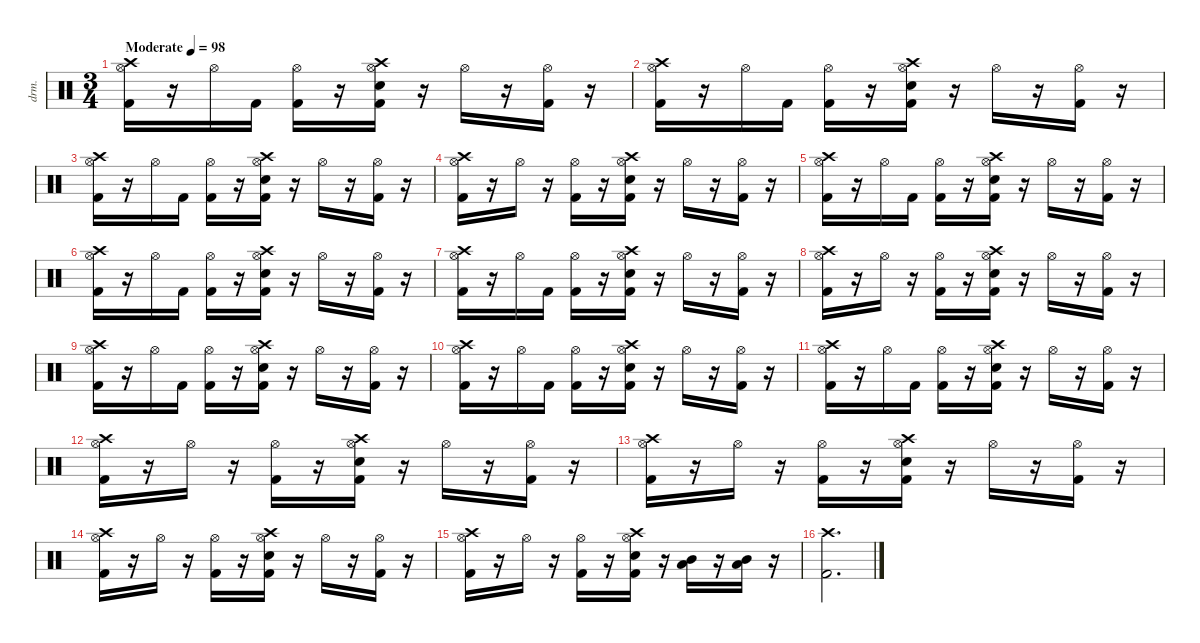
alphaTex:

\defaultSystemsLayout 4
\hideDynamics
\bracketExtendMode nobrackets
\otherSystemsTrackNameOrientation horizontal
\track ("Ударные" "drm.") {instrument percussion}
\staff {score}
\articulation defaults
\ts (3 4)
\beaming (8 2 2 2)
\tempo (98 "Moderate")
\clef neutral
\ks c
("Crash high (hit)" "Kick (hit) 2" "Hi-Hat (open)").16{dy fff beam Down} r.16{beam Down} "Hi-Hat (open)".16{dy f beam Down} "Kick (hit) 2".16{dy mf beam Down} ("Kick (hit) 2" "Hi-Hat (open)").16{dy f beam Down} r.16{beam Down} ("Crash high (hit)" "Snare (hit) 2" "Kick (hit) 2" "Hi-Hat (open)").16{beam Down} r.16{beam Down} "Hi-Hat (open)".16{beam Down} r.16{beam Down} ("Kick (hit) 2" "Hi-Hat (open)").16{beam Down} r.16{beam Down} |
("Crash high (hit)" "Kick (hit) 2" "Hi-Hat (open)").16{dy fff beam Down} r.16{beam Down} "Hi-Hat (open)".16{dy f beam Down} "Kick (hit) 2".16{beam Down} ("Kick (hit) 2" "Hi-Hat (open)").16{beam Down} r.16{beam Down} ("Crash high (hit)" "Snare (hit) 2" "Kick (hit) 2" "Hi-Hat (open)").16{beam Down} r.16{beam Down} "Hi-Hat (open)".16{beam Down} r.16{beam Down} ("Kick (hit) 2" "Hi-Hat (open)").16{beam Down} r.16{beam Down} |
("Crash high (hit)" "Kick (hit) 2" "Hi-Hat (open)").16{dy fff beam Down} r.16{beam Down} "Hi-Hat (open)".16{dy f beam Down} "Kick (hit) 2".16{beam Down} ("Kick (hit) 2" "Hi-Hat (open)").16{beam Down} r.16{beam Down} ("Crash high (hit)" "Snare (hit) 2" "Kick (hit) 2" "Hi-Hat (open)").16{beam Down} r.16{beam Down} "Hi-Hat (open)".16{beam Down} r.16{beam Down} ("Kick (hit) 2" "Hi-Hat (open)").16{beam Down} r.16{beam Down} |
("Crash high (hit)" "Kick (hit) 2" "Hi-Hat (open)").16{dy fff beam Down} r.16{beam Down} "Hi-Hat (open)".16{dy f beam Down} r.16{beam Down} ("Kick (hit) 2" "Hi-Hat (open)").16{beam Down} r.16{beam Down} ("Crash high (hit)" "Snare (hit) 2" "Kick (hit) 2" "Hi-Hat (open)").16{beam Down} r.16{beam Down} "Hi-Hat (open)".16{beam Down} r.16{beam Down} ("Kick (hit) 2" "Hi-Hat (open)").16{beam Down} r.16{beam Down} |
("Crash high (hit)" "Kick (hit) 2" "Hi-Hat (open)").16{dy fff beam Down} r.16{beam Down} "Hi-Hat (open)".16{dy f beam Down} "Kick (hit) 2".16{dy mf beam Down} ("Kick (hit) 2" "Hi-Hat (open)").16{dy f beam Down} r.16{beam Down} ("Crash high (hit)" "Snare (hit) 2" "Kick (hit) 2" "Hi-Hat (open)").16{beam Down} r.16{beam Down} "Hi-Hat (open)".16{beam Down} r.16{beam Down} ("Kick (hit) 2" "Hi-Hat (open)").16{beam Down} r.16{beam Down} |
("Crash high (hit)" "Kick (hit) 2" "Hi-Hat (open)").16{dy fff beam Down} r.16{beam Down} "Hi-Hat (open)".16{dy f beam Down} "Kick (hit) 2".16{beam Down} ("Kick (hit) 2" "Hi-Hat (open)").16{beam Down} r.16{beam Down} ("Crash high (hit)" "Snare (hit) 2" "Kick (hit) 2" "Hi-Hat (open)").16{beam Down} r.16{beam Down} "Hi-Hat (open)".16{beam Down} r.16{beam Down} ("Kick (hit) 2" "Hi-Hat (open)").16{beam Down} r.16{beam Down} |
("Crash high (hit)" "Kick (hit) 2" "Hi-Hat (open)").16{dy fff beam Down} r.16{beam Down} "Hi-Hat (open)".16{dy f beam Down} "Kick (hit) 2".16{beam Down} ("Kick (hit) 2" "Hi-Hat (open)").16{beam Down} r.16{beam Down} ("Crash high (hit)" "Snare (hit) 2" "Kick (hit) 2" "Hi-Hat (open)").16{beam Down} r.16{beam Down} "Hi-Hat (open)".16{beam Down} r.16{beam Down} ("Kick (hit) 2" "Hi-Hat (open)").16{beam Down} r.16{beam Down} |
("Crash high (hit)" "Kick (hit) 2" "Hi-Hat (open)").16{dy fff beam Down} r.16{beam Down} "Hi-Hat (open)".16{dy f beam Down} r.16{beam Down} ("Kick (hit) 2" "Hi-Hat (open)").16{beam Down} r.16{beam Down} ("Crash high (hit)" "Snare (hit) 2" "Kick (hit) 2" "Hi-Hat (open)").16{beam Down} r.16{beam Down} "Hi-Hat (open)".16{beam Down} r.16{beam Down} ("Kick (hit) 2" "Hi-Hat (open)").16{beam Down} r.16{beam Down} |
("Crash high (hit)" "Kick (hit) 2" "Hi-Hat (open)").16{dy fff beam Down} r.16{beam Down} "Hi-Hat (open)".16{dy f beam Down} "Kick (hit) 2".16{dy mf beam Down} ("Kick (hit) 2" "Hi-Hat (open)").16{dy f beam Down} r.16{beam Down} ("Crash high (hit)" "Snare (hit) 2" "Kick (hit) 2" "Hi-Hat (open)").16{beam Down} r.16{beam Down} "Hi-Hat (open)".16{beam Down} r.16{beam Down} ("Kick (hit) 2" "Hi-Hat (open)").16{beam Down} r.16{beam Down} |
("Crash high (hit)" "Kick (hit) 2" "Hi-Hat (open)").16{dy fff beam Down} r.16{beam Down} "Hi-Hat (open)".16{dy f beam Down} "Kick (hit) 2".16{beam Down} ("Kick (hit) 2" "Hi-Hat (open)").16{beam Down} r.16{beam Down} ("Crash high (hit)" "Snare (hit) 2" "Kick (hit) 2" "Hi-Hat (open)").16{beam Down} r.16{beam Down} "Hi-Hat (open)".16{beam Down} r.16{beam Down} ("Kick (hit) 2" "Hi-Hat (open)").16{beam Down} r.16{beam Down} |
("Crash high (hit)" "Kick (hit) 2" "Hi-Hat (open)").16{dy fff beam Down} r.16{beam Down} "Hi-Hat (open)".16{dy f beam Down} "Kick (hit) 2".16{beam Down} ("Kick (hit) 2" "Hi-Hat (open)").16{beam Down} r.16{beam Down} ("Crash high (hit)" "Snare (hit) 2" "Kick (hit) 2" "Hi-Hat (open)").16{beam Down} r.16{beam Down} "Hi-Hat (open)".16{beam Down} r.16{beam Down} ("Kick (hit) 2" "Hi-Hat (open)").16{beam Down} r.16{beam Down} |
("Crash high (hit)" "Kick (hit) 2" "Hi-Hat (open)").16{dy fff beam Down} r.16{beam Down} "Hi-Hat (open)".16{dy f beam Down} r.16{beam Down} ("Kick (hit) 2" "Hi-Hat (open)").16{beam Down} r.16{beam Down} ("Crash high (hit)" "Snare (hit) 2" "Kick (hit) 2" "Hi-Hat (open)").16{beam Down} r.16{beam Down} "Hi-Hat (open)".16{beam Down} r.16{beam Down} ("Kick (hit) 2" "Hi-Hat (open)").16{beam Down} r.16{beam Down} |
("Crash high (hit)" "Kick (hit) 2" "Hi-Hat (open)").16{dy fff beam Down} r.16{beam Down} "Hi-Hat (open)".16{dy f beam Down} r.16{beam Down} ("Kick (hit) 2" "Hi-Hat (open)").16{beam Down} r.16{beam Down} ("Crash high (hit)" "Snare (hit) 2" "Kick (hit) 2" "Hi-Hat (open)").16{beam Down} r.16{beam Down} "Hi-Hat (open)".16{beam Down} r.16{beam Down} ("Kick (hit) 2" "Hi-Hat (open)").16{beam Down} r.16{beam Down} |
("Crash high (hit)" "Kick (hit) 2" "Hi-Hat (open)").16{dy fff beam Down} r.16{beam Down} "Hi-Hat (open)".16{dy f beam Down} r.16{beam Down} ("Kick (hit) 2" "Hi-Hat (open)").16{beam Down} r.16{beam Down} ("Crash high (hit)" "Snare (hit) 2" "Kick (hit) 2" "Hi-Hat (open)").16{beam Down} r.16{beam Down} "Hi-Hat (open)".16{beam Down} r.16{beam Down} ("Kick (hit) 2" "Hi-Hat (open)").16{beam Down} r.16{beam Down} |
("Crash high (hit)" "Kick (hit) 2" "Hi-Hat (open)").16{dy fff beam Down} r.16{beam Down} "Hi-Hat (open)".16{dy f beam Down} r.16{beam Down} ("Kick (hit) 2" "Hi-Hat (open)").16{beam Down} r.16{beam Down} ("Crash high (hit)" "Snare (hit) 2" "Kick (hit) 2" "Hi-Hat (open)").16{beam Down} r.16{beam Down} ("Mid Tom (hit)" "Low Tom (hit)").16{beam Down} r.16{beam Down} ("Low Tom (hit)" "Mid Tom (hit)").16{beam Down} r.16{beam Down} |
("Kick (hit) 2" "Crash high (hit)").2{d beam Down}
